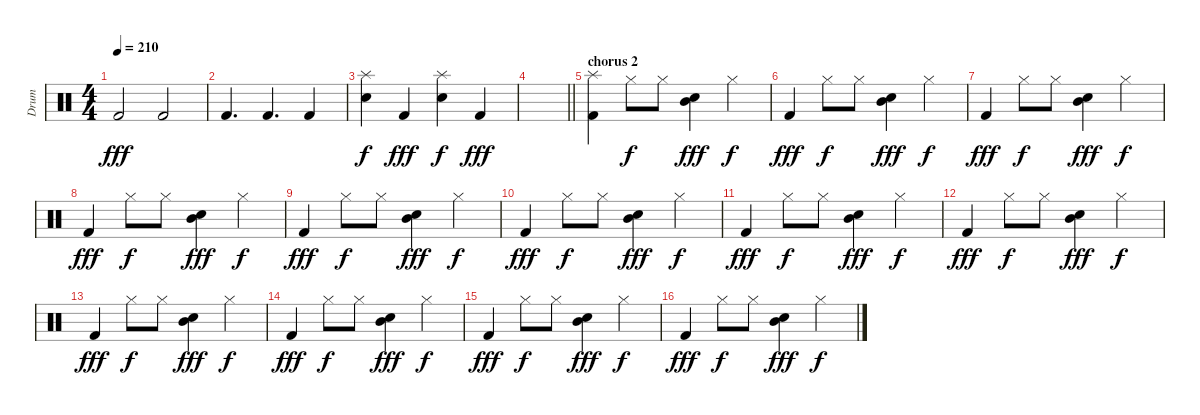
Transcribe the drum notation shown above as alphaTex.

\track ("Drum" "Drum") {instrument percussion}
\staff {score}
\articulation defaults
\ts (4 4)
\tempo 210
\clef neutral
\ks c "Kick (hit) 2".2{dy fff} "Kick (hit) 2".2
|
"Kick (hit) 2".4{d} "Kick (hit) 2".4{d} "Kick (hit) 2".4 |
("Splash (hit)" "Electric Snare (hit)").4{dy f} "Kick (hit) 2".4{dy fff} ("Splash (hit)" "Electric Snare (hit)").4{dy f} "Kick (hit) 2".4{dy fff} |
\barLineRight lightlight
|
\section ("" "chorus 2")
("Kick (hit) 2" "Splash (hit)").4 "Hi-Hat (closed)".8{dy f} "Hi-Hat (closed)".8 ("Snare (hit) 2" "Mid Tom (hit)").4{dy fff} "Hi-Hat (closed)".4{dy f} |
"Kick (hit) 2".4{dy fff} "Hi-Hat (closed)".8{dy f} "Hi-Hat (closed)".8 ("Snare (hit) 2" "Mid Tom (hit)").4{dy fff} "Hi-Hat (closed)".4{dy f} |
"Kick (hit) 2".4{dy fff} "Hi-Hat (closed)".8{dy f} "Hi-Hat (closed)".8 ("Snare (hit) 2" "Mid Tom (hit)").4{dy fff} "Hi-Hat (closed)".4{dy f} |
"Kick (hit) 2".4{dy fff} "Hi-Hat (closed)".8{dy f} "Hi-Hat (closed)".8 ("Snare (hit) 2" "Mid Tom (hit)").4{dy fff} "Hi-Hat (closed)".4{dy f} |
"Kick (hit) 2".4{dy fff} "Hi-Hat (closed)".8{dy f} "Hi-Hat (closed)".8 ("Snare (hit) 2" "Mid Tom (hit)").4{dy fff} "Hi-Hat (closed)".4{dy f} |
"Kick (hit) 2".4{dy fff} "Hi-Hat (closed)".8{dy f} "Hi-Hat (closed)".8 ("Snare (hit) 2" "Mid Tom (hit)").4{dy fff} "Hi-Hat (closed)".4{dy f} |
"Kick (hit) 2".4{dy fff} "Hi-Hat (closed)".8{dy f} "Hi-Hat (closed)".8 ("Snare (hit) 2" "Mid Tom (hit)").4{dy fff} "Hi-Hat (closed)".4{dy f} |
"Kick (hit) 2".4{dy fff} "Hi-Hat (closed)".8{dy f} "Hi-Hat (closed)".8 ("Snare (hit) 2" "Mid Tom (hit)").4{dy fff} "Hi-Hat (closed)".4{dy f} |
"Kick (hit) 2".4{dy fff} "Hi-Hat (closed)".8{dy f} "Hi-Hat (closed)".8 ("Snare (hit) 2" "Mid Tom (hit)").4{dy fff} "Hi-Hat (closed)".4{dy f} |
"Kick (hit) 2".4{dy fff} "Hi-Hat (closed)".8{dy f} "Hi-Hat (closed)".8 ("Snare (hit) 2" "Mid Tom (hit)").4{dy fff} "Hi-Hat (closed)".4{dy f} |
"Kick (hit) 2".4{dy fff} "Hi-Hat (closed)".8{dy f} "Hi-Hat (closed)".8 ("Snare (hit) 2" "Mid Tom (hit)").4{dy fff} "Hi-Hat (closed)".4{dy f} |
"Kick (hit) 2".4{dy fff} "Hi-Hat (closed)".8{dy f} "Hi-Hat (closed)".8 ("Snare (hit) 2" "Mid Tom (hit)").4{dy fff} "Hi-Hat (closed)".4{dy f}
